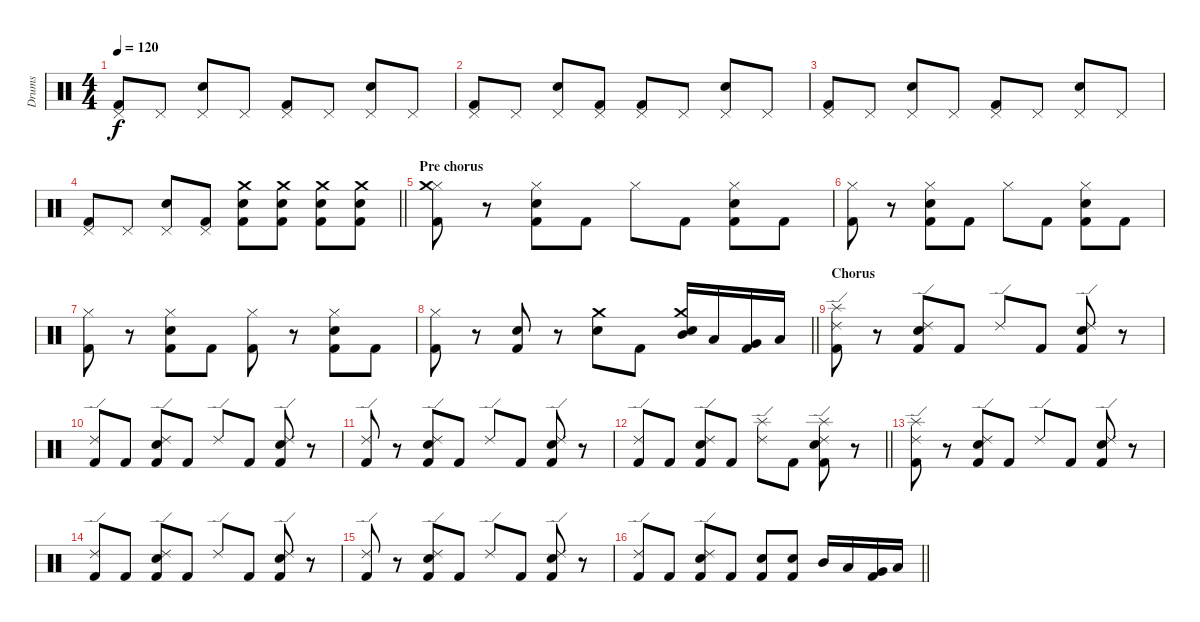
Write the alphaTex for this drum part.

\track ("Drums" "Drums") {instrument percussion}
\staff {score}
\articulation defaults
\ts (4 4)
\tempo 120
\clef neutral
\ks c
("Kick (hit) 2" "Pedal Hi-Hat (hit)").8{dy f} "Pedal Hi-Hat (hit)".8 ("Snare (hit) 2" "Pedal Hi-Hat (hit)").8 "Pedal Hi-Hat (hit)".8 ("Kick (hit) 2" "Pedal Hi-Hat (hit)").8 "Pedal Hi-Hat (hit)".8 ("Snare (hit) 2" "Pedal Hi-Hat (hit)").8 "Pedal Hi-Hat (hit)".8 |
("Kick (hit) 2" "Pedal Hi-Hat (hit)").8 "Pedal Hi-Hat (hit)".8 ("Snare (hit) 2" "Pedal Hi-Hat (hit)").8 ("Kick (hit) 2" "Pedal Hi-Hat (hit)").8 ("Kick (hit) 2" "Pedal Hi-Hat (hit)").8 "Pedal Hi-Hat (hit)".8 ("Snare (hit) 2" "Pedal Hi-Hat (hit)").8 "Pedal Hi-Hat (hit)".8 |
("Kick (hit) 2" "Pedal Hi-Hat (hit)").8 "Pedal Hi-Hat (hit)".8 ("Snare (hit) 2" "Pedal Hi-Hat (hit)").8 "Pedal Hi-Hat (hit)".8 ("Kick (hit) 2" "Pedal Hi-Hat (hit)").8 "Pedal Hi-Hat (hit)".8 ("Snare (hit) 2" "Pedal Hi-Hat (hit)").8 "Pedal Hi-Hat (hit)".8 |
\barLineRight lightlight
("Kick (hit) 2" "Pedal Hi-Hat (hit)").8 "Pedal Hi-Hat (hit)".8 ("Snare (hit) 2" "Pedal Hi-Hat (hit)").8 ("Pedal Hi-Hat (hit)" "Kick (hit) 2").8 ("Crash medium (hit)" "Snare (hit) 2" "Kick (hit) 2").8 ("Kick (hit) 2" "Snare (hit) 2" "Crash medium (hit)").8 ("Snare (hit) 2" "Crash medium (hit)" "Kick (hit) 2").8 ("Kick (hit) 2" "Snare (hit) 2" "Crash medium (hit)").8 |
\section ("" "Pre chorus")
("Kick (hit) 2" "Hi-Hat (closed)" "Crash medium (hit)").8 r.8 ("Hi-Hat (closed)" "Kick (hit) 2" "Snare (hit) 2").8 "Kick (hit) 2".8 "Hi-Hat (closed)".8 "Kick (hit) 2".8 ("Kick (hit) 2" "Snare (hit) 2" "Hi-Hat (closed)").8 "Kick (hit) 2".8 |
("Hi-Hat (closed)" "Kick (hit) 2").8 r.8 ("Hi-Hat (closed)" "Kick (hit) 2" "Snare (hit) 2").8 "Kick (hit) 2".8 "Hi-Hat (closed)".8 "Kick (hit) 2".8 ("Hi-Hat (closed)" "Snare (hit) 2" "Kick (hit) 2").8 "Kick (hit) 2".8 |
("Kick (hit) 2" "Hi-Hat (closed)").8 r.8 ("Snare (hit) 2" "Kick (hit) 2" "Hi-Hat (closed)").8 "Kick (hit) 2".8 ("Kick (hit) 2" "Hi-Hat (closed)").8 r.8 ("Kick (hit) 2" "Snare (hit) 2" "Hi-Hat (closed)").8 "Kick (hit) 2".8 |
\barLineRight lightlight
("Kick (hit) 2" "Hi-Hat (closed)").8 r.8 ("Kick (hit) 2" "Snare (hit) 2").8 r.8 ("Snare (hit) 2" "Crash medium (hit)").8 "Kick (hit) 2".8 ("Snare (hit) 2" "Mid Tom (hit)" "Crash medium (hit)").16 "Low Tom (hit)".16 ("Kick (hit) 2" "Very Low Tom (hit)").16 "Low Floor Tom (hit)".16 |
\section ("" "Chorus")
("Kick (hit) 2" "Ride (edge) 2" "Splash (hit)").8 r.8 ("Ride (edge) 2" "Kick (hit) 2" "Snare (hit) 2").8 "Kick (hit) 2".8 "Ride (edge) 2".8 "Kick (hit) 2".8 ("Ride (edge) 2" "Kick (hit) 2" "Snare (hit) 2").8 r.8 |
("Kick (hit) 2" "Ride (edge) 2").8 "Kick (hit) 2".8 ("Snare (hit) 2" "Kick (hit) 2" "Ride (edge) 2").8 "Kick (hit) 2".8 "Ride (edge) 2".8 "Kick (hit) 2".8 ("Snare (hit) 2" "Kick (hit) 2" "Ride (edge) 2").8 r.8 |
("Kick (hit) 2" "Ride (edge) 2").8 r.8 ("Snare (hit) 2" "Kick (hit) 2" "Ride (edge) 2").8 "Kick (hit) 2".8 "Ride (edge) 2".8 "Kick (hit) 2".8 ("Snare (hit) 2" "Kick (hit) 2" "Ride (edge) 2").8 r.8 |
\barLineRight lightlight
("Kick (hit) 2" "Ride (edge) 2").8 "Kick (hit) 2".8 ("Snare (hit) 2" "Kick (hit) 2" "Ride (edge) 2").8 "Kick (hit) 2".8 ("Ride (edge) 2" "Splash (hit)").8 "Kick (hit) 2".8 ("Snare (hit) 2" "Kick (hit) 2" "Ride (edge) 2" "Splash (hit)").8 r.8 |
("Kick (hit) 2" "Ride (edge) 2" "Splash (hit)").8 r.8 ("Ride (edge) 2" "Kick (hit) 2" "Snare (hit) 2").8 "Kick (hit) 2".8 "Ride (edge) 2".8 "Kick (hit) 2".8 ("Ride (edge) 2" "Kick (hit) 2" "Snare (hit) 2").8 r.8 |
("Kick (hit) 2" "Ride (edge) 2").8 "Kick (hit) 2".8 ("Snare (hit) 2" "Kick (hit) 2" "Ride (edge) 2").8 "Kick (hit) 2".8 "Ride (edge) 2".8 "Kick (hit) 2".8 ("Snare (hit) 2" "Kick (hit) 2" "Ride (edge) 2").8 r.8 |
("Kick (hit) 2" "Ride (edge) 2").8 r.8 ("Snare (hit) 2" "Kick (hit) 2" "Ride (edge) 2").8 "Kick (hit) 2".8 "Ride (edge) 2".8 "Kick (hit) 2".8 ("Snare (hit) 2" "Kick (hit) 2" "Ride (edge) 2").8 r.8 |
\barLineRight lightlight
("Kick (hit) 2" "Ride (edge) 2").8 "Kick (hit) 2".8 ("Snare (hit) 2" "Kick (hit) 2" "Ride (edge) 2").8 "Kick (hit) 2".8 ("Snare (hit) 2" "Kick (hit) 2").8 ("Snare (hit) 2" "Kick (hit) 2").8 "Mid Tom (hit)".16 "Low Tom (hit)".16 ("Very Low Tom (hit)" "Kick (hit) 2").16 "Low Floor Tom (hit)".16
